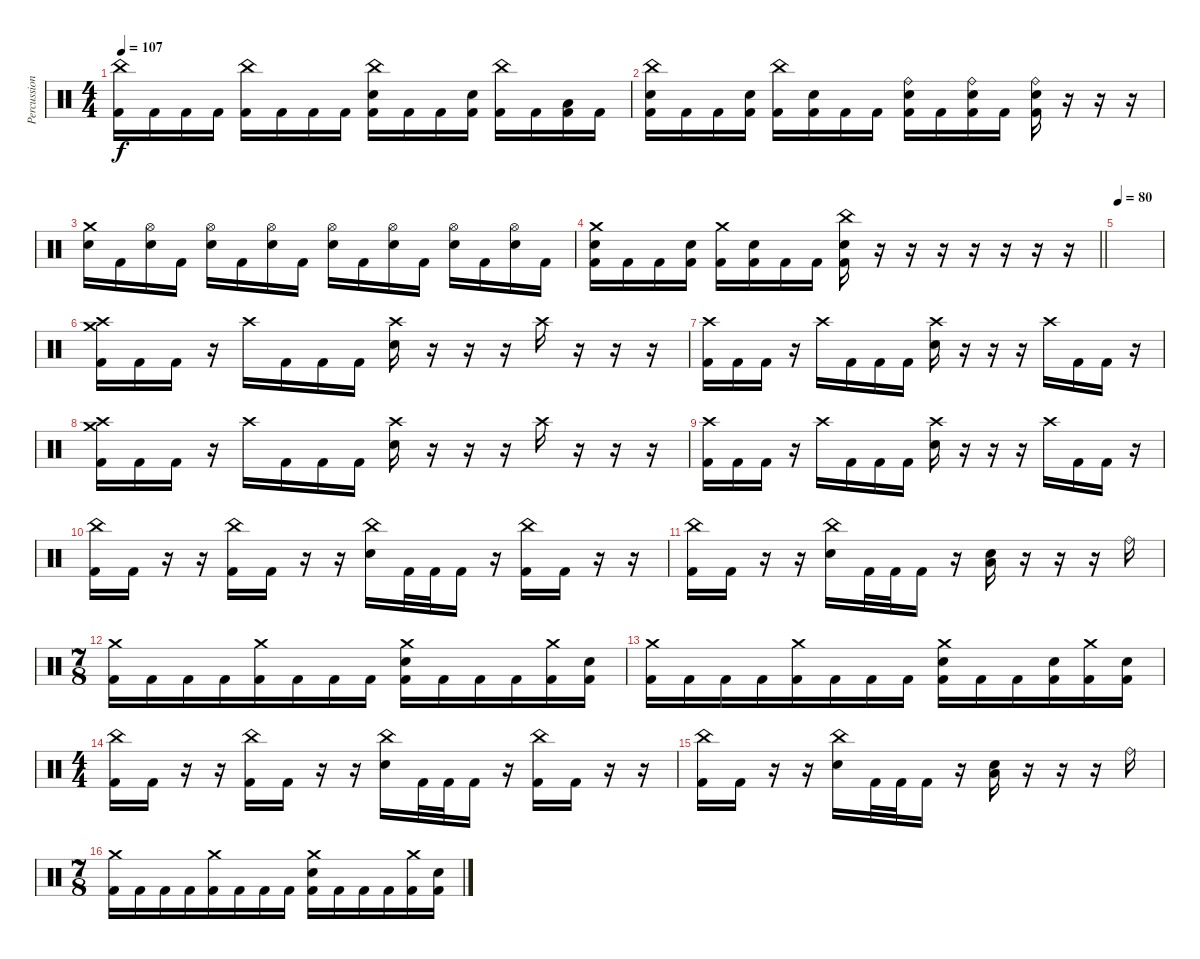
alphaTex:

\track ("Percussion" "Percussion") {instrument percussion}
\staff {score}
\articulation defaults
\ts (4 4)
\tempo 107
\clef neutral
\ks c
("China (hit)" "Kick (hit) 2").16{dy f} "Kick (hit) 2".16 "Kick (hit) 2".16 "Kick (hit) 2".16 ("China (hit)" "Kick (hit) 2").16 "Kick (hit) 2".16 "Kick (hit) 2".16 "Kick (hit) 2".16 ("China (hit)" "Electric Snare (hit)" "Kick (hit) 2").16 "Kick (hit) 2".16 "Kick (hit) 2".16 ("Electric Snare (hit)" "Kick (hit) 2").16 ("China (hit)" "Kick (hit) 2").16 "Kick (hit) 2".16 ("Low Floor Tom (hit)" "Kick (hit) 2").16 "Kick (hit) 2".16 |
("China (hit)" "Electric Snare (hit)" "Kick (hit) 2").16 "Kick (hit) 2".16 "Kick (hit) 2".16 ("Electric Snare (hit)" "Kick (hit) 2").16 ("China (hit)" "Kick (hit) 2").16 ("Electric Snare (hit)" "Kick (hit) 2").16 "Kick (hit) 2".16 "Kick (hit) 2".16 ("Ride (bell)" "Electric Snare (hit)" "Kick (hit) 2").16 "Kick (hit) 2".16 ("Ride (bell)" "Electric Snare (hit)" "Kick (hit) 2").16 "Kick (hit) 2".16 ("Ride (bell)" "Electric Snare (hit)" "Kick (hit) 2").16 r.16 r.16 r.16 |
("Crash medium (hit)" "Electric Snare (hit)").16 "Kick (hit) 2".16 ("Hi-Hat (open)" "Electric Snare (hit)").16 "Kick (hit) 2".16 ("Hi-Hat (open)" "Electric Snare (hit)").16 "Kick (hit) 2".16 ("Hi-Hat (open)" "Electric Snare (hit)").16 "Kick (hit) 2".16 ("Hi-Hat (open)" "Electric Snare (hit)").16 "Kick (hit) 2".16 ("Hi-Hat (open)" "Electric Snare (hit)").16 "Kick (hit) 2".16 ("Hi-Hat (open)" "Electric Snare (hit)").16 "Kick (hit) 2".16 ("Hi-Hat (open)" "Electric Snare (hit)").16 "Kick (hit) 2".16 |
\barLineRight lightlight
("Crash medium (hit)" "Electric Snare (hit)" "Kick (hit) 2").16 "Kick (hit) 2".16 "Kick (hit) 2".16 ("Electric Snare (hit)" "Kick (hit) 2").16 ("Crash medium (hit)" "Kick (hit) 2").16 ("Electric Snare (hit)" "Kick (hit) 2").16 "Kick (hit) 2".16 "Kick (hit) 2".16 ("China (hit)" "Electric Snare (hit)" "Kick (hit) 2").16 r.16 r.16 r.16 r.16 r.16 r.16 r.16 |
\tempo 80
|
("Crash high (hit)" "Crash medium (hit)" "Kick (hit) 2").16 "Kick (hit) 2".16 "Kick (hit) 2".16 r.16 "Crash high (hit)".16 "Kick (hit) 2".16 "Kick (hit) 2".16 "Kick (hit) 2".16 ("Crash high (hit)" "Electric Snare (hit)").16 r.16 r.16 r.16 "Crash high (hit)".16 r.16 r.16 r.16 |
("Crash high (hit)" "Kick (hit) 2").16 "Kick (hit) 2".16 "Kick (hit) 2".16 r.16 "Crash high (hit)".16 "Kick (hit) 2".16 "Kick (hit) 2".16 "Kick (hit) 2".16 ("Crash high (hit)" "Electric Snare (hit)").16 r.16 r.16 r.16 "Crash high (hit)".16 "Kick (hit) 2".16 "Kick (hit) 2".16 r.16 |
("Crash high (hit)" "Crash medium (hit)" "Kick (hit) 2").16 "Kick (hit) 2".16 "Kick (hit) 2".16 r.16 "Crash high (hit)".16 "Kick (hit) 2".16 "Kick (hit) 2".16 "Kick (hit) 2".16 ("Crash high (hit)" "Electric Snare (hit)").16 r.16 r.16 r.16 "Crash high (hit)".16 r.16 r.16 r.16 |
("Crash high (hit)" "Kick (hit) 2").16 "Kick (hit) 2".16 "Kick (hit) 2".16 r.16 "Crash high (hit)".16 "Kick (hit) 2".16 "Kick (hit) 2".16 "Kick (hit) 2".16 ("Crash high (hit)" "Electric Snare (hit)").16 r.16 r.16 r.16 "Crash high (hit)".16 "Kick (hit) 2".16 "Kick (hit) 2".16 r.16 |
("China (hit)" "Kick (hit) 2").16 "Kick (hit) 2".16 r.16 r.16 ("China (hit)" "Kick (hit) 2").16 "Kick (hit) 2".16 r.16 r.16 ("China (hit)" "Electric Snare (hit)").16 "Kick (hit) 2".32 "Kick (hit) 2".32 "Kick (hit) 2".16 r.16 ("China (hit)" "Kick (hit) 2").16 "Kick (hit) 2".16 r.16 r.16 |
("China (hit)" "Kick (hit) 2").16 "Kick (hit) 2".16 r.16 r.16 ("China (hit)" "Electric Snare (hit)").16 "Kick (hit) 2".32 "Kick (hit) 2".32 "Kick (hit) 2".16 r.16 ("Low Floor Tom (hit)" "Electric Snare (hit)").16 r.16 r.16 r.16 "Ride (bell)".16 |
\ts (7 8)
("Crash medium (hit)" "Kick (hit) 2").16 "Kick (hit) 2".16 "Kick (hit) 2".16 "Kick (hit) 2".16 ("Crash medium (hit)" "Kick (hit) 2").16 "Kick (hit) 2".16 "Kick (hit) 2".16 "Kick (hit) 2".16 ("Crash medium (hit)" "Electric Snare (hit)" "Kick (hit) 2").16 "Kick (hit) 2".16 "Kick (hit) 2".16 "Kick (hit) 2".16 ("Crash medium (hit)" "Kick (hit) 2").16 ("Electric Snare (hit)" "Kick (hit) 2").16 |
("Crash medium (hit)" "Kick (hit) 2").16 "Kick (hit) 2".16 "Kick (hit) 2".16 "Kick (hit) 2".16 ("Crash medium (hit)" "Kick (hit) 2").16 "Kick (hit) 2".16 "Kick (hit) 2".16 "Kick (hit) 2".16 ("Crash medium (hit)" "Electric Snare (hit)" "Kick (hit) 2").16 "Kick (hit) 2".16 "Kick (hit) 2".16 ("Electric Snare (hit)" "Kick (hit) 2").16 ("Crash medium (hit)" "Kick (hit) 2").16 ("Electric Snare (hit)" "Kick (hit) 2").16 |
\ts (4 4)
("China (hit)" "Kick (hit) 2").16 "Kick (hit) 2".16 r.16 r.16 ("China (hit)" "Kick (hit) 2").16 "Kick (hit) 2".16 r.16 r.16 ("China (hit)" "Electric Snare (hit)").16 "Kick (hit) 2".32 "Kick (hit) 2".32 "Kick (hit) 2".16 r.16 ("China (hit)" "Kick (hit) 2").16 "Kick (hit) 2".16 r.16 r.16 |
("China (hit)" "Kick (hit) 2").16 "Kick (hit) 2".16 r.16 r.16 ("China (hit)" "Electric Snare (hit)").16 "Kick (hit) 2".32 "Kick (hit) 2".32 "Kick (hit) 2".16 r.16 ("Low Floor Tom (hit)" "Electric Snare (hit)").16 r.16 r.16 r.16 "Ride (bell)".16 |
\ts (7 8)
("Crash medium (hit)" "Kick (hit) 2").16 "Kick (hit) 2".16 "Kick (hit) 2".16 "Kick (hit) 2".16 ("Crash medium (hit)" "Kick (hit) 2").16 "Kick (hit) 2".16 "Kick (hit) 2".16 "Kick (hit) 2".16 ("Crash medium (hit)" "Electric Snare (hit)" "Kick (hit) 2").16 "Kick (hit) 2".16 "Kick (hit) 2".16 "Kick (hit) 2".16 ("Crash medium (hit)" "Kick (hit) 2").16 ("Electric Snare (hit)" "Kick (hit) 2").16
